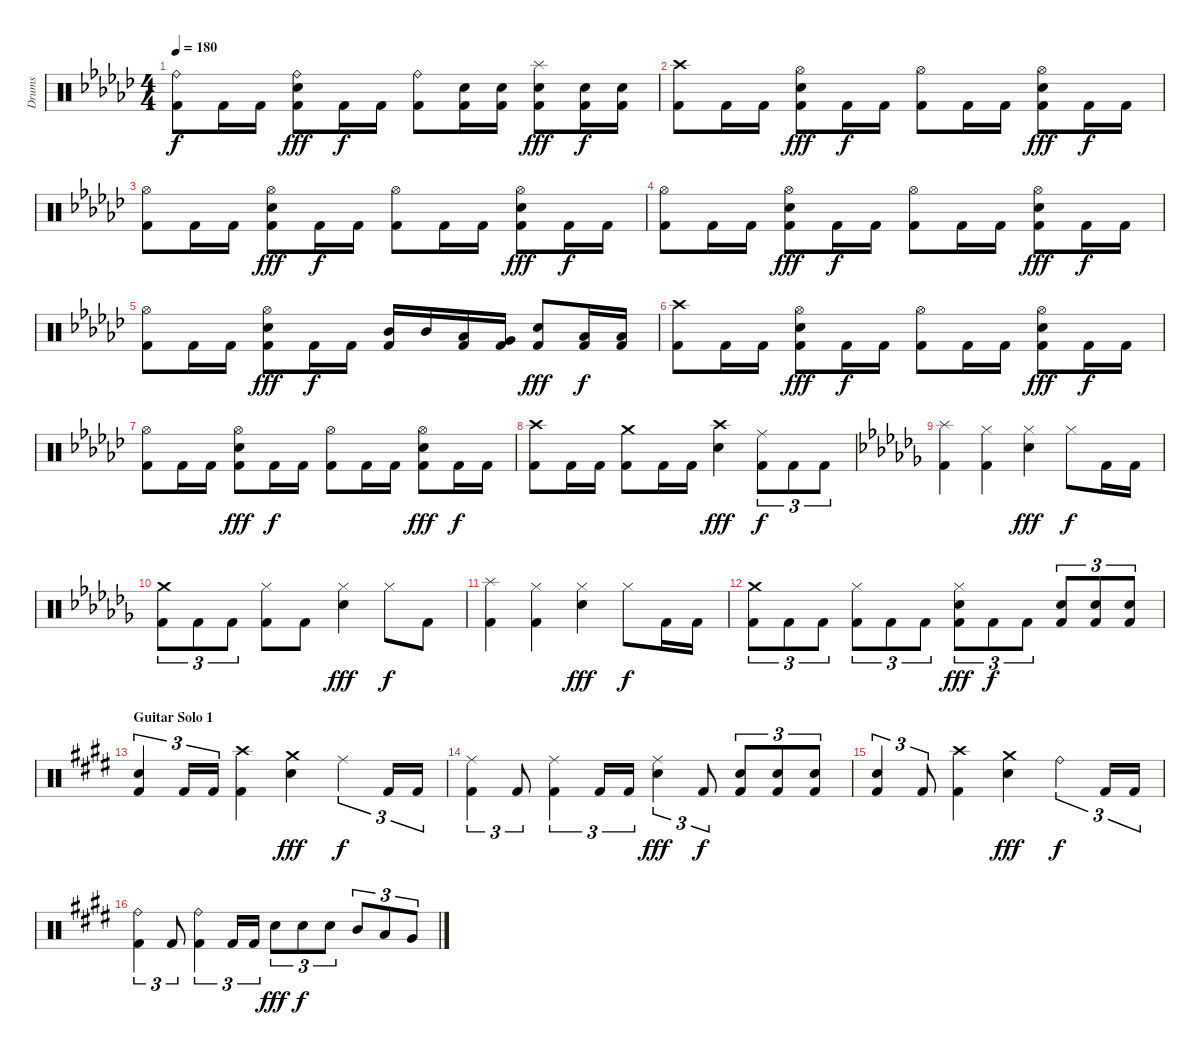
\track ("Drums" "Drums") {instrument percussion}
\staff {score}
\articulation defaults
\ts (4 4)
\tempo 180
\clef neutral
\ks ebminor
("Ride (bell)" "Kick (hit) 2").8{dy f} "Kick (hit) 2".16 "Kick (hit) 2".16 ("Ride (bell)" "Snare (hit) 2" "Kick (hit) 2").8{dy fff} "Kick (hit) 2".16{dy f} "Kick (hit) 2".16 ("Ride (bell)" "Kick (hit) 2").8 ("Snare (hit) 2" "Kick (hit) 2").16 ("Snare (hit) 2" "Kick (hit) 2").16 ("Splash (hit)" "Snare (hit) 2" "Kick (hit) 2").8{dy fff} ("Snare (hit) 2" "Kick (hit) 2").16{dy f} ("Snare (hit) 2" "Kick (hit) 2").16 |
("Crash high (hit)" "Kick (hit) 2").8 "Kick (hit) 2".16 "Kick (hit) 2".16 ("Hi-Hat (open)" "Snare (hit) 2" "Kick (hit) 2").8{dy fff} "Kick (hit) 2".16{dy f} "Kick (hit) 2".16 ("Hi-Hat (open)" "Kick (hit) 2").8 "Kick (hit) 2".16 "Kick (hit) 2".16 ("Hi-Hat (open)" "Snare (hit) 2" "Kick (hit) 2").8{dy fff} "Kick (hit) 2".16{dy f} "Kick (hit) 2".16 |
("Hi-Hat (open)" "Kick (hit) 2").8 "Kick (hit) 2".16 "Kick (hit) 2".16 ("Hi-Hat (open)" "Snare (hit) 2" "Kick (hit) 2").8{dy fff} "Kick (hit) 2".16{dy f} "Kick (hit) 2".16 ("Hi-Hat (open)" "Kick (hit) 2").8 "Kick (hit) 2".16 "Kick (hit) 2".16 ("Hi-Hat (open)" "Snare (hit) 2" "Kick (hit) 2").8{dy fff} "Kick (hit) 2".16{dy f} "Kick (hit) 2".16 |
("Hi-Hat (open)" "Kick (hit) 2").8 "Kick (hit) 2".16 "Kick (hit) 2".16 ("Hi-Hat (open)" "Snare (hit) 2" "Kick (hit) 2").8{dy fff} "Kick (hit) 2".16{dy f} "Kick (hit) 2".16 ("Hi-Hat (open)" "Kick (hit) 2").8 "Kick (hit) 2".16 "Kick (hit) 2".16 ("Hi-Hat (open)" "Snare (hit) 2" "Kick (hit) 2").8{dy fff} "Kick (hit) 2".16{dy f} "Kick (hit) 2".16 |
("Hi-Hat (open)" "Kick (hit) 2").8 "Kick (hit) 2".16 "Kick (hit) 2".16 ("Hi-Hat (open)" "Snare (hit) 2" "Kick (hit) 2").8{dy fff} "Kick (hit) 2".16{dy f} "Kick (hit) 2".16 ("Mid Tom (hit)" "Kick (hit) 2").16 "Mid Tom (hit)".16 ("Low Tom (hit)" "Kick (hit) 2").16 ("Very Low Tom (hit)" "Kick (hit) 2").16 ("Snare (hit) 2" "Kick (hit) 2").8{dy fff} ("Low Tom (hit)" "Kick (hit) 2").16{dy f} ("Low Tom (hit)" "Kick (hit) 2").16 |
("Crash high (hit)" "Kick (hit) 2").8 "Kick (hit) 2".16 "Kick (hit) 2".16 ("Hi-Hat (open)" "Snare (hit) 2" "Kick (hit) 2").8{dy fff} "Kick (hit) 2".16{dy f} "Kick (hit) 2".16 ("Hi-Hat (open)" "Kick (hit) 2").8 "Kick (hit) 2".16 "Kick (hit) 2".16 ("Hi-Hat (open)" "Snare (hit) 2" "Kick (hit) 2").8{dy fff} "Kick (hit) 2".16{dy f} "Kick (hit) 2".16 |
("Hi-Hat (open)" "Kick (hit) 2").8 "Kick (hit) 2".16 "Kick (hit) 2".16 ("Hi-Hat (open)" "Snare (hit) 2" "Kick (hit) 2").8{dy fff} "Kick (hit) 2".16{dy f} "Kick (hit) 2".16 ("Hi-Hat (open)" "Kick (hit) 2").8 "Kick (hit) 2".16 "Kick (hit) 2".16 ("Hi-Hat (open)" "Snare (hit) 2" "Kick (hit) 2").8{dy fff} "Kick (hit) 2".16{dy f} "Kick (hit) 2".16 |
("Crash high (hit)" "Kick (hit) 2").8 "Kick (hit) 2".16 "Kick (hit) 2".16 ("Crash medium (hit)" "Kick (hit) 2").8 "Kick (hit) 2".16 "Kick (hit) 2".16 ("Crash high (hit)" "Snare (hit) 2").4{dy fff} ("Ride (middle)" "Kick (hit) 2").8{tu (3 2) dy f} "Kick (hit) 2".8{tu (3 2)} "Kick (hit) 2".8{tu (3 2)} |
\ks abminor
("Splash (hit)" "Kick (hit) 2").4 ("Hi-Hat (closed)" "Kick (hit) 2").4 ("Hi-Hat (closed)" "Snare (hit) 2").4{dy fff} "Hi-Hat (closed)".8{dy f} "Kick (hit) 2".16 "Kick (hit) 2".16 |
("Crash medium (hit)" "Kick (hit) 2").8{tu (3 2)} "Kick (hit) 2".8{tu (3 2)} "Kick (hit) 2".8{tu (3 2)} ("Hi-Hat (closed)" "Kick (hit) 2").8 "Kick (hit) 2".8 ("Hi-Hat (closed)" "Snare (hit) 2").4{dy fff} "Hi-Hat (closed)".8{dy f} "Kick (hit) 2".8 |
("Splash (hit)" "Kick (hit) 2").4 ("Hi-Hat (closed)" "Kick (hit) 2").4 ("Hi-Hat (closed)" "Snare (hit) 2").4{dy fff} "Hi-Hat (closed)".8{dy f} "Kick (hit) 2".16 "Kick (hit) 2".16 |
("Crash medium (hit)" "Kick (hit) 2").8{tu (3 2)} "Kick (hit) 2".8{tu (3 2)} "Kick (hit) 2".8{tu (3 2)} ("Hi-Hat (closed)" "Kick (hit) 2").8{tu (3 2)} "Kick (hit) 2".8{tu (3 2)} "Kick (hit) 2".8{tu (3 2)} ("Hi-Hat (closed)" "Snare (hit) 2" "Kick (hit) 2").8{tu (3 2) dy fff} "Kick (hit) 2".8{tu (3 2) dy f} "Kick (hit) 2".8{tu (3 2)} ("Snare (hit) 2" "Kick (hit) 2").8{tu (3 2)} ("Snare (hit) 2" "Kick (hit) 2").8{tu (3 2)} ("Snare (hit) 2" "Kick (hit) 2").8{tu (3 2)} |
\section ("" "Guitar Solo 1")
\ks c#minor
("Snare (hit) 2" "Kick (hit) 2").4{tu (3 2)} "Kick (hit) 2".16{tu (3 2)} "Kick (hit) 2".16{tu (3 2)} ("Crash high (hit)" "Kick (hit) 2").4 ("Crash medium (hit)" "Snare (hit) 2").4{dy fff} "Ride (middle)".4{tu (3 2) dy f} "Kick (hit) 2".16{tu (3 2)} "Kick (hit) 2".16{tu (3 2)} |
("Ride (middle)" "Kick (hit) 2").4{tu (3 2)} "Kick (hit) 2".8{tu (3 2)} ("Ride (middle)" "Kick (hit) 2").4{tu (3 2)} "Kick (hit) 2".16{tu (3 2)} "Kick (hit) 2".16{tu (3 2)} ("Ride (middle)" "Snare (hit) 2").4{tu (3 2) dy fff} "Kick (hit) 2".8{tu (3 2) dy f} ("Snare (hit) 2" "Kick (hit) 2").8{tu (3 2)} ("Snare (hit) 2" "Kick (hit) 2").8{tu (3 2)} ("Snare (hit) 2" "Kick (hit) 2").8{tu (3 2)} |
("Snare (hit) 2" "Kick (hit) 2").4{tu (3 2)} "Kick (hit) 2".8{tu (3 2)} ("Crash high (hit)" "Kick (hit) 2").4 ("Crash medium (hit)" "Snare (hit) 2").4{dy fff} "Ride (bell)".4{tu (3 2) dy f} "Kick (hit) 2".16{tu (3 2)} "Kick (hit) 2".16{tu (3 2)} |
("Ride (bell)" "Kick (hit) 2").4{tu (3 2)} "Kick (hit) 2".8{tu (3 2)} ("Ride (bell)" "Kick (hit) 2").4{tu (3 2)} "Kick (hit) 2".16{tu (3 2)} "Kick (hit) 2".16{tu (3 2)} "Snare (hit) 2".8{tu (3 2) dy fff} "Snare (hit) 2".8{tu (3 2) dy f} "Snare (hit) 2".8{tu (3 2)} "Mid Tom (hit)".8{tu (3 2)} "Low Tom (hit)".8{tu (3 2)} "Very Low Tom (hit)".8{tu (3 2)}
